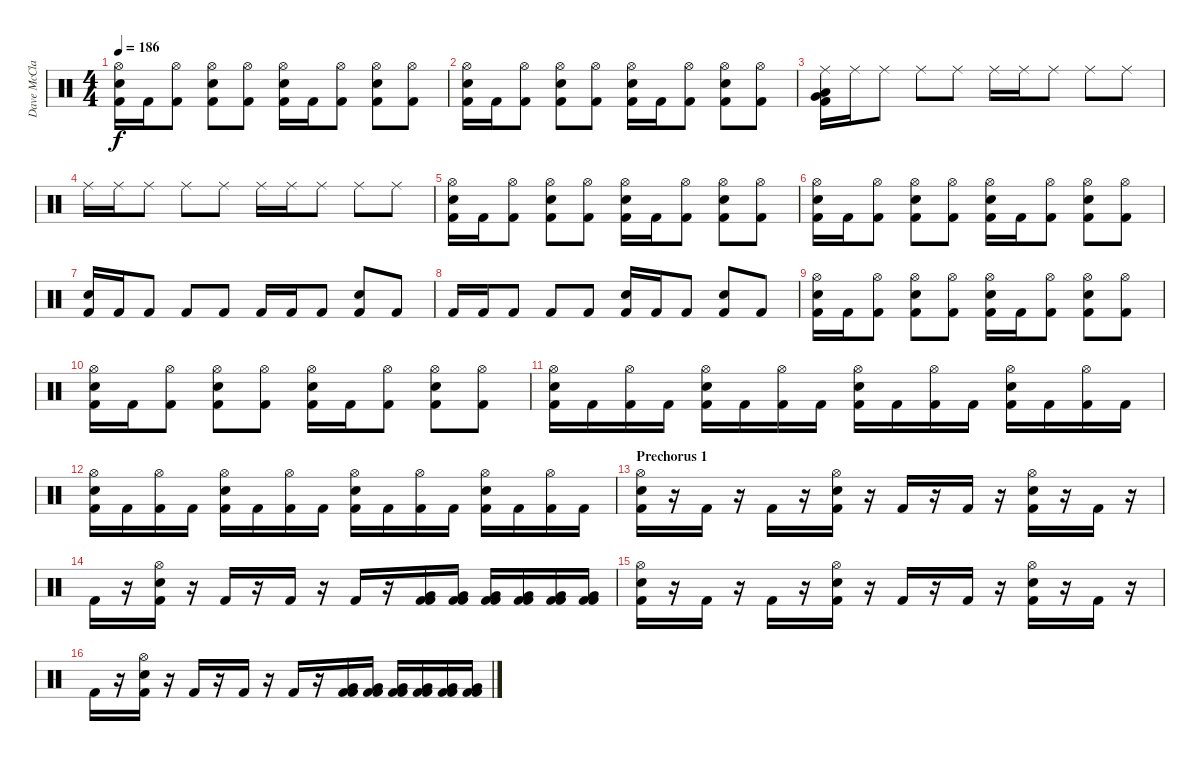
\track ("Dave McClain" "Dave McCla") {instrument percussion}
\staff {score}
\articulation defaults
\ts (4 4)
\tempo 186
\clef neutral
\ks c
("Hi-Hat (open)" "Snare (hit) 2" "Kick (hit) 2").16{dy f} "Kick (hit) 2".16 ("Hi-Hat (open)" "Kick (hit) 2").8 ("Hi-Hat (open)" "Snare (hit) 2" "Kick (hit) 2").8 ("Hi-Hat (open)" "Kick (hit) 2").8 ("Hi-Hat (open)" "Snare (hit) 2" "Kick (hit) 2").16 "Kick (hit) 2".16 ("Hi-Hat (open)" "Kick (hit) 2").8 ("Hi-Hat (open)" "Snare (hit) 2" "Kick (hit) 2").8 ("Hi-Hat (open)" "Kick (hit) 2").8 |
("Hi-Hat (open)" "Snare (hit) 2" "Kick (hit) 2").16 "Kick (hit) 2".16 ("Hi-Hat (open)" "Kick (hit) 2").8 ("Hi-Hat (open)" "Snare (hit) 2" "Kick (hit) 2").8 ("Hi-Hat (open)" "Kick (hit) 2").8 ("Hi-Hat (open)" "Snare (hit) 2" "Kick (hit) 2").16 "Kick (hit) 2".16 ("Hi-Hat (open)" "Kick (hit) 2").8 ("Hi-Hat (open)" "Snare (hit) 2" "Kick (hit) 2").8 ("Hi-Hat (open)" "Kick (hit) 2").8 |
("Ride (middle)" "Low Floor Tom (hit)" "Very Low Tom (hit)" "Kick (hit) 2").16 "Ride (middle)".16 "Ride (middle)".8 "Ride (middle)".8 "Ride (middle)".8 "Ride (middle)".16 "Ride (middle)".16 "Ride (middle)".8 "Ride (middle)".8 "Ride (middle)".8 |
"Ride (middle)".16 "Ride (middle)".16 "Ride (middle)".8 "Ride (middle)".8 "Ride (middle)".8 "Ride (middle)".16 "Ride (middle)".16 "Ride (middle)".8 "Ride (middle)".8 "Ride (middle)".8 |
("Hi-Hat (open)" "Snare (hit) 2" "Kick (hit) 2").16 "Kick (hit) 2".16 ("Hi-Hat (open)" "Kick (hit) 2").8 ("Hi-Hat (open)" "Snare (hit) 2" "Kick (hit) 2").8 ("Hi-Hat (open)" "Kick (hit) 2").8 ("Hi-Hat (open)" "Snare (hit) 2" "Kick (hit) 2").16 "Kick (hit) 2".16 ("Hi-Hat (open)" "Kick (hit) 2").8 ("Hi-Hat (open)" "Snare (hit) 2" "Kick (hit) 2").8 ("Hi-Hat (open)" "Kick (hit) 2").8 |
("Hi-Hat (open)" "Snare (hit) 2" "Kick (hit) 2").16 "Kick (hit) 2".16 ("Hi-Hat (open)" "Kick (hit) 2").8 ("Hi-Hat (open)" "Snare (hit) 2" "Kick (hit) 2").8 ("Hi-Hat (open)" "Kick (hit) 2").8 ("Hi-Hat (open)" "Snare (hit) 2" "Kick (hit) 2").16 "Kick (hit) 2".16 ("Hi-Hat (open)" "Kick (hit) 2").8 ("Hi-Hat (open)" "Snare (hit) 2" "Kick (hit) 2").8 ("Hi-Hat (open)" "Kick (hit) 2").8 |
("Snare (hit) 2" "Kick (hit) 2").16 "Kick (hit) 2".16 "Kick (hit) 2".8 "Kick (hit) 2".8 "Kick (hit) 2".8 "Kick (hit) 2".16 "Kick (hit) 2".16 "Kick (hit) 2".8 ("Snare (hit) 2" "Kick (hit) 2").8 "Kick (hit) 2".8 |
"Kick (hit) 2".16 "Kick (hit) 2".16 "Kick (hit) 2".8 "Kick (hit) 2".8 "Kick (hit) 2".8 ("Snare (hit) 2" "Kick (hit) 2").16 "Kick (hit) 2".16 "Kick (hit) 2".8 ("Snare (hit) 2" "Kick (hit) 2").8 "Kick (hit) 2".8 |
("Hi-Hat (open)" "Snare (hit) 2" "Kick (hit) 2").16 "Kick (hit) 2".16 ("Hi-Hat (open)" "Kick (hit) 2").8 ("Hi-Hat (open)" "Snare (hit) 2" "Kick (hit) 2").8 ("Hi-Hat (open)" "Kick (hit) 2").8 ("Hi-Hat (open)" "Snare (hit) 2" "Kick (hit) 2").16 "Kick (hit) 2".16 ("Hi-Hat (open)" "Kick (hit) 2").8 ("Hi-Hat (open)" "Snare (hit) 2" "Kick (hit) 2").8 ("Hi-Hat (open)" "Kick (hit) 2").8 |
("Hi-Hat (open)" "Snare (hit) 2" "Kick (hit) 2").16 "Kick (hit) 2".16 ("Hi-Hat (open)" "Kick (hit) 2").8 ("Hi-Hat (open)" "Snare (hit) 2" "Kick (hit) 2").8 ("Hi-Hat (open)" "Kick (hit) 2").8 ("Hi-Hat (open)" "Snare (hit) 2" "Kick (hit) 2").16 "Kick (hit) 2".16 ("Hi-Hat (open)" "Kick (hit) 2").8 ("Hi-Hat (open)" "Snare (hit) 2" "Kick (hit) 2").8 ("Hi-Hat (open)" "Kick (hit) 2").8 |
("Hi-Hat (open)" "Snare (hit) 2" "Kick (hit) 2").16 "Kick (hit) 2".16 ("Hi-Hat (open)" "Kick (hit) 2").16 "Kick (hit) 2".16 ("Hi-Hat (open)" "Snare (hit) 2" "Kick (hit) 2").16 "Kick (hit) 2".16 ("Hi-Hat (open)" "Kick (hit) 2").16 "Kick (hit) 2".16 ("Hi-Hat (open)" "Snare (hit) 2" "Kick (hit) 2").16 "Kick (hit) 2".16 ("Hi-Hat (open)" "Kick (hit) 2").16 "Kick (hit) 2".16 ("Hi-Hat (open)" "Snare (hit) 2" "Kick (hit) 2").16 "Kick (hit) 2".16 ("Hi-Hat (open)" "Kick (hit) 2").16 "Kick (hit) 2".16 |
("Hi-Hat (open)" "Snare (hit) 2" "Kick (hit) 2").16 "Kick (hit) 2".16 ("Hi-Hat (open)" "Kick (hit) 2").16 "Kick (hit) 2".16 ("Hi-Hat (open)" "Snare (hit) 2" "Kick (hit) 2").16 "Kick (hit) 2".16 ("Hi-Hat (open)" "Kick (hit) 2").16 "Kick (hit) 2".16 ("Hi-Hat (open)" "Snare (hit) 2" "Kick (hit) 2").16 "Kick (hit) 2".16 ("Hi-Hat (open)" "Kick (hit) 2").16 "Kick (hit) 2".16 ("Hi-Hat (open)" "Snare (hit) 2" "Kick (hit) 2").16 "Kick (hit) 2".16 ("Hi-Hat (open)" "Kick (hit) 2").16 "Kick (hit) 2".16 |
\section ("" "Prechorus 1")
("Hi-Hat (open)" "Snare (hit) 2" "Kick (hit) 2").16 r.16 "Kick (hit) 2".16 r.16 "Kick (hit) 2".16 r.16 ("Hi-Hat (open)" "Snare (hit) 2" "Kick (hit) 2").16 r.16 "Kick (hit) 2".16 r.16 "Kick (hit) 2".16 r.16 ("Hi-Hat (open)" "Snare (hit) 2" "Kick (hit) 2").16 r.16 "Kick (hit) 2".16 r.16 |
"Kick (hit) 2".16 r.16 ("Hi-Hat (open)" "Snare (hit) 2" "Kick (hit) 2").16 r.16 "Kick (hit) 2".16 r.16 "Kick (hit) 2".16 r.16 "Kick (hit) 2".16 r.16 ("Very Low Tom (hit)" "Kick (hit) 2" "Kick (hit) 2").16 ("Very Low Tom (hit)" "Kick (hit) 2" "Kick (hit) 2").16 ("Very Low Tom (hit)" "Kick (hit) 2" "Kick (hit) 2").16 ("Very Low Tom (hit)" "Kick (hit) 2" "Kick (hit) 2").16 ("Very Low Tom (hit)" "Kick (hit) 2" "Kick (hit) 2").16 ("Very Low Tom (hit)" "Kick (hit) 2" "Kick (hit) 2").16 |
("Hi-Hat (open)" "Snare (hit) 2" "Kick (hit) 2").16 r.16 "Kick (hit) 2".16 r.16 "Kick (hit) 2".16 r.16 ("Hi-Hat (open)" "Snare (hit) 2" "Kick (hit) 2").16 r.16 "Kick (hit) 2".16 r.16 "Kick (hit) 2".16 r.16 ("Hi-Hat (open)" "Snare (hit) 2" "Kick (hit) 2").16 r.16 "Kick (hit) 2".16 r.16 |
"Kick (hit) 2".16 r.16 ("Hi-Hat (open)" "Snare (hit) 2" "Kick (hit) 2").16 r.16 "Kick (hit) 2".16 r.16 "Kick (hit) 2".16 r.16 "Kick (hit) 2".16 r.16 ("Very Low Tom (hit)" "Kick (hit) 2" "Kick (hit) 2").16 ("Very Low Tom (hit)" "Kick (hit) 2" "Kick (hit) 2").16 ("Very Low Tom (hit)" "Kick (hit) 2" "Kick (hit) 2").16 ("Very Low Tom (hit)" "Kick (hit) 2" "Kick (hit) 2").16 ("Very Low Tom (hit)" "Kick (hit) 2" "Kick (hit) 2").16 ("Very Low Tom (hit)" "Kick (hit) 2" "Kick (hit) 2").16
